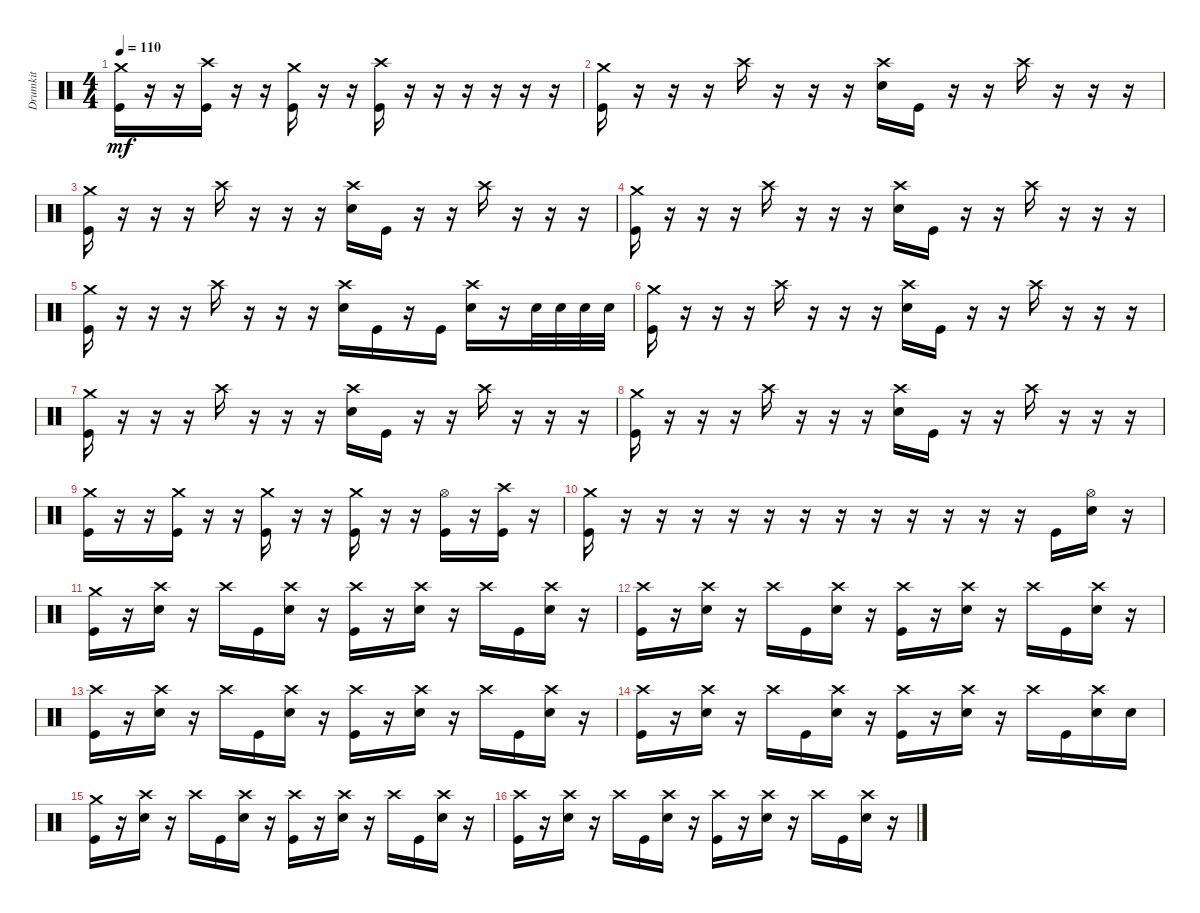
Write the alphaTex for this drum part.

\track ("Drumkit" "Drumkit") {instrument percussion}
\staff {score}
\articulation defaults
\ts (4 4)
\tempo 110
\clef neutral
\ks c
("Kick (hit)" "Crash medium (hit)").16{dy mf} r.16 r.16 ("Kick (hit)" "Crash high (hit)").16 r.16 r.16 ("Kick (hit)" "Crash medium (hit)").16 r.16 r.16 ("Kick (hit)" "Crash high (hit)").16 r.16 r.16 r.16 r.16 r.16 r.16 |
("Crash medium (hit)" "Kick (hit)").16 r.16 r.16 r.16 "Crash high (hit)".16 r.16 r.16 r.16 ("Crash high (hit)" "Snare (hit) 2").16 "Kick (hit)".16 r.16 r.16 "Crash high (hit)".16 r.16 r.16 r.16 |
("Crash medium (hit)" "Kick (hit)").16 r.16 r.16 r.16 "Crash high (hit)".16 r.16 r.16 r.16 ("Crash high (hit)" "Snare (hit) 2").16 "Kick (hit)".16 r.16 r.16 "Crash high (hit)".16 r.16 r.16 r.16 |
("Crash medium (hit)" "Kick (hit)").16 r.16 r.16 r.16 "Crash high (hit)".16 r.16 r.16 r.16 ("Crash high (hit)" "Snare (hit) 2").16 "Kick (hit)".16 r.16 r.16 "Crash high (hit)".16 r.16 r.16 r.16 |
("Crash medium (hit)" "Kick (hit)").16 r.16 r.16 r.16 "Crash high (hit)".16 r.16 r.16 r.16 ("Crash high (hit)" "Snare (hit) 2").16 "Kick (hit)".16 r.16 "Kick (hit)".16 ("Crash high (hit)" "Snare (hit) 2").16 r.16 "Snare (hit) 2".32 "Snare (hit) 2".32 "Snare (hit) 2".32 "Snare (hit) 2".32 |
("Crash medium (hit)" "Kick (hit)").16 r.16 r.16 r.16 "Crash high (hit)".16 r.16 r.16 r.16 ("Crash high (hit)" "Snare (hit) 2").16 "Kick (hit)".16 r.16 r.16 "Crash high (hit)".16 r.16 r.16 r.16 |
("Crash medium (hit)" "Kick (hit)").16 r.16 r.16 r.16 "Crash high (hit)".16 r.16 r.16 r.16 ("Crash high (hit)" "Snare (hit) 2").16 "Kick (hit)".16 r.16 r.16 "Crash high (hit)".16 r.16 r.16 r.16 |
("Crash medium (hit)" "Kick (hit)").16 r.16 r.16 r.16 "Crash high (hit)".16 r.16 r.16 r.16 ("Crash high (hit)" "Snare (hit) 2").16 "Kick (hit)".16 r.16 r.16 "Crash high (hit)".16 r.16 r.16 r.16 |
("Kick (hit)" "Crash medium (hit)").16 r.16 r.16 ("Kick (hit)" "Crash medium (hit)").16 r.16 r.16 ("Kick (hit)" "Crash medium (hit)").16 r.16 r.16 ("Kick (hit)" "Crash medium (hit)").16 r.16 r.16 ("Kick (hit)" "Hi-Hat (open)").16 r.16 ("Kick (hit)" "Crash high (hit)").16 r.16 |
("Crash medium (hit)" "Kick (hit)").16 r.16 r.16 r.16 r.16 r.16 r.16 r.16 r.16 r.16 r.16 r.16 r.16 "Kick (hit)".16 ("Snare (hit) 2" "Hi-Hat (open)").16 r.16 |
("Kick (hit)" "Crash medium (hit)").16 r.16 ("Crash high (hit)" "Snare (hit) 2").16 r.16 "Crash high (hit)".16 "Kick (hit)".16 ("Crash high (hit)" "Snare (hit) 2").16 r.16 ("Crash high (hit)" "Kick (hit)").16 r.16 ("Crash high (hit)" "Snare (hit) 2").16 r.16 "Crash high (hit)".16 "Kick (hit)".16 ("Crash high (hit)" "Snare (hit) 2").16 r.16 |
("Kick (hit)" "Crash high (hit)").16 r.16 ("Crash high (hit)" "Snare (hit) 2").16 r.16 "Crash high (hit)".16 "Kick (hit)".16 ("Crash high (hit)" "Snare (hit) 2").16 r.16 ("Crash high (hit)" "Kick (hit)").16 r.16 ("Crash high (hit)" "Snare (hit) 2").16 r.16 "Crash high (hit)".16 "Kick (hit)".16 ("Crash high (hit)" "Snare (hit) 2").16 r.16 |
("Kick (hit)" "Crash high (hit)").16 r.16 ("Crash high (hit)" "Snare (hit) 2").16 r.16 "Crash high (hit)".16 "Kick (hit)".16 ("Crash high (hit)" "Snare (hit) 2").16 r.16 ("Crash high (hit)" "Kick (hit)").16 r.16 ("Crash high (hit)" "Snare (hit) 2").16 r.16 "Crash high (hit)".16 "Kick (hit)".16 ("Crash high (hit)" "Snare (hit) 2").16 r.16 |
("Kick (hit)" "Crash high (hit)").16 r.16 ("Crash high (hit)" "Snare (hit) 2").16 r.16 "Crash high (hit)".16 "Kick (hit)".16 ("Crash high (hit)" "Snare (hit) 2").16 r.16 ("Crash high (hit)" "Kick (hit)").16 r.16 ("Crash high (hit)" "Snare (hit) 2").16 r.16 "Crash high (hit)".16 "Kick (hit)".16 ("Crash high (hit)" "Snare (hit) 2").16 "Snare (hit) 2".16 |
("Kick (hit)" "Crash medium (hit)").16 r.16 ("Crash high (hit)" "Snare (hit) 2").16 r.16 "Crash high (hit)".16 "Kick (hit)".16 ("Crash high (hit)" "Snare (hit) 2").16 r.16 ("Crash high (hit)" "Kick (hit)").16 r.16 ("Crash high (hit)" "Snare (hit) 2").16 r.16 "Crash high (hit)".16 "Kick (hit)".16 ("Crash high (hit)" "Snare (hit) 2").16 r.16 |
("Kick (hit)" "Crash high (hit)").16 r.16 ("Crash high (hit)" "Snare (hit) 2").16 r.16 "Crash high (hit)".16 "Kick (hit)".16 ("Crash high (hit)" "Snare (hit) 2").16 r.16 ("Crash high (hit)" "Kick (hit)").16 r.16 ("Crash high (hit)" "Snare (hit) 2").16 r.16 "Crash high (hit)".16 "Kick (hit)".16 ("Crash high (hit)" "Snare (hit) 2").16 r.16
